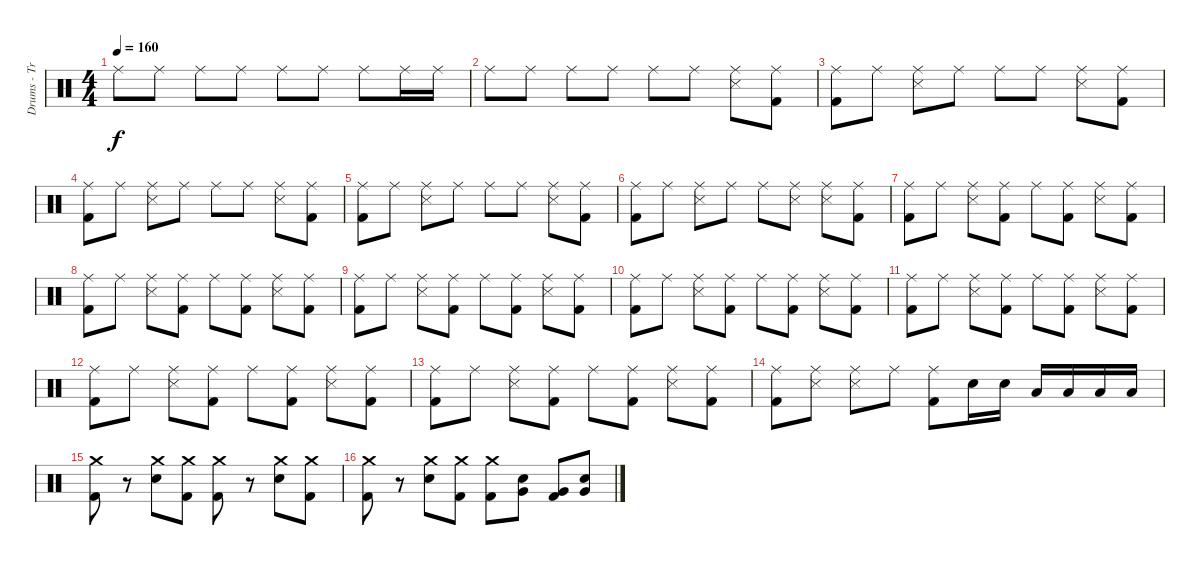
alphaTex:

\track ("Drums - Travis Barker" "Drums - Tr") {instrument percussion}
\staff {score}
\articulation defaults
\ts (4 4)
\tempo 160
\clef neutral
\ks c "Ride (middle)".8{dy f} "Ride (middle)".8 "Ride (middle)".8 "Ride (middle)".8 "Ride (middle)".8 "Ride (middle)".8 "Ride (middle)".8 "Ride (middle)".16 "Ride (middle)".16
|
"Ride (middle)".8 "Ride (middle)".8 "Ride (middle)".8 "Ride (middle)".8 "Ride (middle)".8 "Ride (middle)".8 ("Ride (middle)" "Snare (side stick) 3").8 ("Ride (middle)" "Kick (hit) 2").8 |
("Ride (middle)" "Kick (hit) 2").8 "Ride (middle)".8 ("Ride (middle)" "Snare (side stick) 3").8 "Ride (middle)".8 "Ride (middle)".8 "Ride (middle)".8 ("Ride (middle)" "Snare (side stick) 3").8 ("Ride (middle)" "Kick (hit) 2").8 |
("Ride (middle)" "Kick (hit) 2").8 "Ride (middle)".8 ("Ride (middle)" "Snare (side stick) 3").8 "Ride (middle)".8 "Ride (middle)".8 "Ride (middle)".8 ("Ride (middle)" "Snare (side stick) 3").8 ("Ride (middle)" "Kick (hit) 2").8 |
("Ride (middle)" "Kick (hit) 2").8 "Ride (middle)".8 ("Ride (middle)" "Snare (side stick) 3").8 "Ride (middle)".8 "Ride (middle)".8 "Ride (middle)".8 ("Ride (middle)" "Snare (side stick) 3").8 ("Ride (middle)" "Kick (hit) 2").8 |
("Ride (middle)" "Kick (hit) 2").8 "Ride (middle)".8 ("Ride (middle)" "Snare (side stick) 3").8 "Ride (middle)".8 "Ride (middle)".8 ("Ride (middle)" "Snare (side stick) 3").8 ("Ride (middle)" "Snare (side stick) 3").8 ("Ride (middle)" "Kick (hit) 2").8 |
("Ride (middle)" "Kick (hit) 2").8 "Ride (middle)".8 ("Ride (middle)" "Snare (side stick) 3").8 ("Ride (middle)" "Kick (hit) 2").8 "Ride (middle)".8 ("Ride (middle)" "Kick (hit) 2").8 ("Ride (middle)" "Snare (side stick) 3").8 ("Ride (middle)" "Kick (hit) 2").8 |
("Ride (middle)" "Kick (hit) 2").8 "Ride (middle)".8 ("Ride (middle)" "Snare (side stick) 3").8 ("Ride (middle)" "Kick (hit) 2").8 "Ride (middle)".8 ("Ride (middle)" "Kick (hit) 2").8 ("Ride (middle)" "Snare (side stick) 3").8 ("Ride (middle)" "Kick (hit) 2").8 |
("Ride (middle)" "Kick (hit) 2").8 "Ride (middle)".8 ("Ride (middle)" "Snare (side stick) 3").8 ("Ride (middle)" "Kick (hit) 2").8 "Ride (middle)".8 ("Ride (middle)" "Kick (hit) 2").8 ("Ride (middle)" "Snare (side stick) 3").8 ("Ride (middle)" "Kick (hit) 2").8 |
("Ride (middle)" "Kick (hit) 2").8 "Ride (middle)".8 ("Ride (middle)" "Snare (side stick) 3").8 ("Ride (middle)" "Kick (hit) 2").8 "Ride (middle)".8 ("Ride (middle)" "Kick (hit) 2").8 ("Ride (middle)" "Snare (side stick) 3").8 ("Ride (middle)" "Kick (hit) 2").8 |
("Ride (middle)" "Kick (hit) 2").8 "Ride (middle)".8 ("Ride (middle)" "Snare (side stick) 3").8 ("Ride (middle)" "Kick (hit) 2").8 "Ride (middle)".8 ("Ride (middle)" "Kick (hit) 2").8 ("Ride (middle)" "Snare (side stick) 3").8 ("Ride (middle)" "Kick (hit) 2").8 |
("Ride (middle)" "Kick (hit) 2").8 "Ride (middle)".8 ("Ride (middle)" "Snare (side stick) 3").8 ("Ride (middle)" "Kick (hit) 2").8 "Ride (middle)".8 ("Ride (middle)" "Kick (hit) 2").8 ("Ride (middle)" "Snare (side stick) 3").8 ("Ride (middle)" "Kick (hit) 2").8 |
("Ride (middle)" "Kick (hit) 2").8 "Ride (middle)".8 ("Ride (middle)" "Snare (side stick) 3").8 ("Ride (middle)" "Kick (hit) 2").8 "Ride (middle)".8 ("Ride (middle)" "Kick (hit) 2").8 ("Ride (middle)" "Snare (side stick) 3").8 ("Ride (middle)" "Kick (hit) 2").8 |
("Ride (middle)" "Kick (hit) 2").8 ("Ride (middle)" "Snare (side stick) 3").8 ("Ride (middle)" "Snare (side stick) 3").8 "Ride (middle)".8 ("Ride (middle)" "Kick (hit) 2").8 "Snare (hit) 2".16 "Snare (hit) 2".16 "Low Tom (hit)".16 "Low Tom (hit)".16 "Low Floor Tom (hit)".16 "Low Floor Tom (hit)".16 |
("Kick (hit) 2" "Crash medium (hit)").8 r.8 ("Snare (hit) 2" "Crash medium (hit)").8 ("Kick (hit) 2" "Crash medium (hit)").8 ("Kick (hit) 2" "Crash medium (hit)").8 r.8 ("Snare (hit) 2" "Crash medium (hit)").8 ("Kick (hit) 2" "Crash medium (hit)").8 |
("Kick (hit) 2" "Crash medium (hit)").8 r.8 ("Snare (hit) 2" "Crash medium (hit)").8 ("Kick (hit) 2" "Crash medium (hit)").8 ("Kick (hit) 2" "Crash medium (hit)").8 ("Snare (hit) 2" "Very Low Tom (hit)").8 ("Kick (hit) 2" "Very Low Tom (hit)").8 ("Snare (hit) 2" "Very Low Tom (hit)").8
